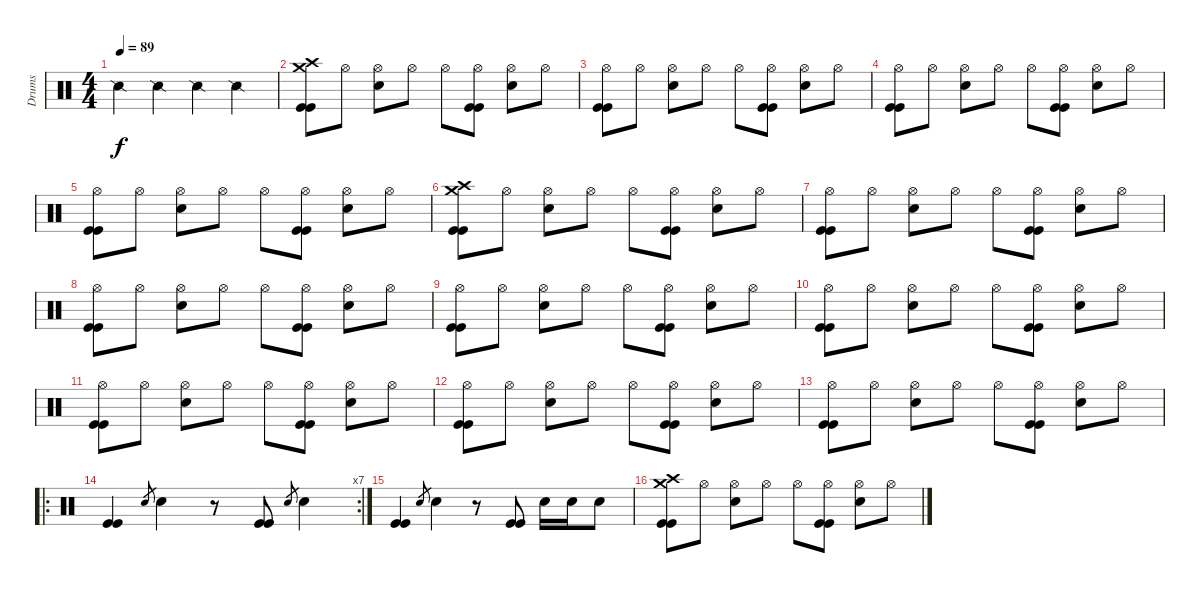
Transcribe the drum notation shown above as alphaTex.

\track ("Drums" "Drums") {instrument percussion}
\staff {score}
\articulation defaults
\ts (4 4)
\tempo 89
\clef neutral
\ks c "Snare (side stick) 2".4{dy f} "Snare (side stick) 2".4 "Snare (side stick) 2".4 "Snare (side stick) 2".4
|
("Crash medium (hit)" "Crash high (hit)" "Kick (hit)" "Kick (hit)").8 "Hi-Hat (open)".8 ("Hi-Hat (open)" "Electric Snare (hit)").8 "Hi-Hat (open)".8 "Hi-Hat (open)".8 ("Hi-Hat (open)" "Kick (hit)" "Kick (hit)").8 ("Hi-Hat (open)" "Electric Snare (hit)").8 "Hi-Hat (open)".8 |
("Hi-Hat (open)" "Kick (hit)" "Kick (hit)").8 "Hi-Hat (open)".8 ("Hi-Hat (open)" "Electric Snare (hit)").8 "Hi-Hat (open)".8 "Hi-Hat (open)".8 ("Hi-Hat (open)" "Kick (hit)" "Kick (hit)").8 ("Hi-Hat (open)" "Electric Snare (hit)").8 "Hi-Hat (open)".8 |
("Hi-Hat (open)" "Kick (hit)" "Kick (hit)").8 "Hi-Hat (open)".8 ("Hi-Hat (open)" "Electric Snare (hit)").8 "Hi-Hat (open)".8 "Hi-Hat (open)".8 ("Hi-Hat (open)" "Kick (hit)" "Kick (hit)").8 ("Hi-Hat (open)" "Electric Snare (hit)").8 "Hi-Hat (open)".8 |
("Hi-Hat (open)" "Kick (hit)" "Kick (hit)").8 "Hi-Hat (open)".8 ("Hi-Hat (open)" "Electric Snare (hit)").8 "Hi-Hat (open)".8 "Hi-Hat (open)".8 ("Hi-Hat (open)" "Kick (hit)" "Kick (hit)").8 ("Hi-Hat (open)" "Electric Snare (hit)").8 "Hi-Hat (open)".8 |
("Crash medium (hit)" "Crash high (hit)" "Kick (hit)" "Kick (hit)").8 "Hi-Hat (open)".8 ("Hi-Hat (open)" "Electric Snare (hit)").8 "Hi-Hat (open)".8 "Hi-Hat (open)".8 ("Hi-Hat (open)" "Kick (hit)" "Kick (hit)").8 ("Hi-Hat (open)" "Electric Snare (hit)").8 "Hi-Hat (open)".8 |
("Hi-Hat (open)" "Kick (hit)" "Kick (hit)").8 "Hi-Hat (open)".8 ("Hi-Hat (open)" "Electric Snare (hit)").8 "Hi-Hat (open)".8 "Hi-Hat (open)".8 ("Hi-Hat (open)" "Kick (hit)" "Kick (hit)").8 ("Hi-Hat (open)" "Electric Snare (hit)").8 "Hi-Hat (open)".8 |
("Hi-Hat (open)" "Kick (hit)" "Kick (hit)").8 "Hi-Hat (open)".8 ("Hi-Hat (open)" "Electric Snare (hit)").8 "Hi-Hat (open)".8 "Hi-Hat (open)".8 ("Hi-Hat (open)" "Kick (hit)" "Kick (hit)").8 ("Hi-Hat (open)" "Electric Snare (hit)").8 "Hi-Hat (open)".8 |
("Hi-Hat (open)" "Kick (hit)" "Kick (hit)").8 "Hi-Hat (open)".8 ("Hi-Hat (open)" "Electric Snare (hit)").8 "Hi-Hat (open)".8 "Hi-Hat (open)".8 ("Hi-Hat (open)" "Kick (hit)" "Kick (hit)").8 ("Hi-Hat (open)" "Electric Snare (hit)").8 "Hi-Hat (open)".8 |
("Hi-Hat (open)" "Kick (hit)" "Kick (hit)").8 "Hi-Hat (open)".8 ("Hi-Hat (open)" "Electric Snare (hit)").8 "Hi-Hat (open)".8 "Hi-Hat (open)".8 ("Hi-Hat (open)" "Kick (hit)" "Kick (hit)").8 ("Hi-Hat (open)" "Electric Snare (hit)").8 "Hi-Hat (open)".8 |
("Hi-Hat (open)" "Kick (hit)" "Kick (hit)").8 "Hi-Hat (open)".8 ("Hi-Hat (open)" "Electric Snare (hit)").8 "Hi-Hat (open)".8 "Hi-Hat (open)".8 ("Hi-Hat (open)" "Kick (hit)" "Kick (hit)").8 ("Hi-Hat (open)" "Electric Snare (hit)").8 "Hi-Hat (open)".8 |
("Hi-Hat (open)" "Kick (hit)" "Kick (hit)").8 "Hi-Hat (open)".8 ("Hi-Hat (open)" "Electric Snare (hit)").8 "Hi-Hat (open)".8 "Hi-Hat (open)".8 ("Hi-Hat (open)" "Kick (hit)" "Kick (hit)").8 ("Hi-Hat (open)" "Electric Snare (hit)").8 "Hi-Hat (open)".8 |
("Hi-Hat (open)" "Kick (hit)" "Kick (hit)").8 "Hi-Hat (open)".8 ("Hi-Hat (open)" "Electric Snare (hit)").8 "Hi-Hat (open)".8 "Hi-Hat (open)".8 ("Hi-Hat (open)" "Kick (hit)" "Kick (hit)").8 ("Hi-Hat (open)" "Electric Snare (hit)").8 "Hi-Hat (open)".8 |
\ro
\rc 7
("Kick (hit)" "Kick (hit)").4 "Electric Snare (hit)".8{gr} "Electric Snare (hit)".4 r.8 ("Kick (hit)" "Kick (hit)").8 "Electric Snare (hit)".8{gr} "Electric Snare (hit)".4 |
("Kick (hit)" "Kick (hit)").4 "Electric Snare (hit)".8{gr} "Electric Snare (hit)".4 r.8 ("Kick (hit)" "Kick (hit)").8 "Electric Snare (hit)".16 "Electric Snare (hit)".16 "Electric Snare (hit)".8 |
("Crash medium (hit)" "Crash high (hit)" "Kick (hit)" "Kick (hit)").8 "Hi-Hat (open)".8 ("Hi-Hat (open)" "Electric Snare (hit)").8 "Hi-Hat (open)".8 "Hi-Hat (open)".8 ("Hi-Hat (open)" "Kick (hit)" "Kick (hit)").8 ("Hi-Hat (open)" "Electric Snare (hit)").8 "Hi-Hat (open)".8
